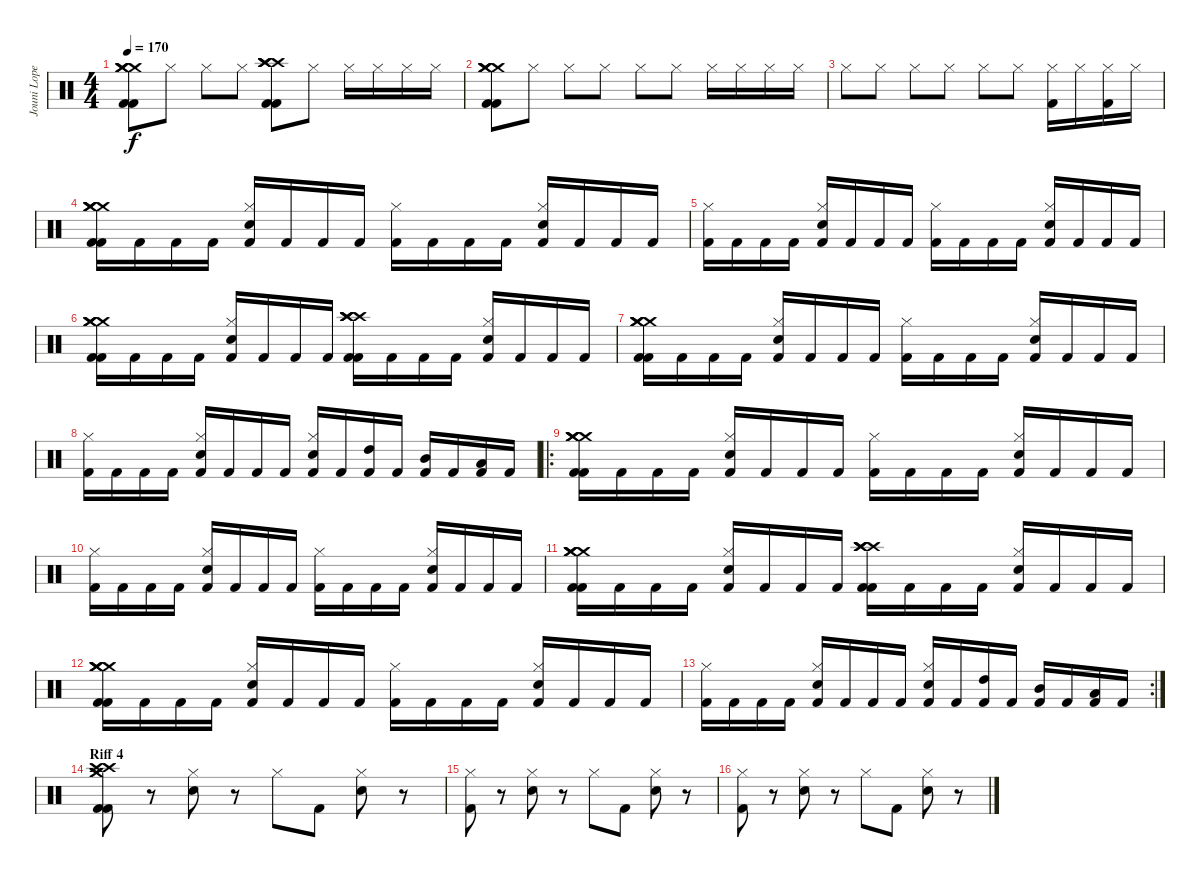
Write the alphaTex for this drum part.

\track ("Jouni Lopez (Bateria) 17 años" "Jouni Lope") {instrument percussion}
\staff {score}
\articulation defaults
\ts (4 4)
\tempo 170
\clef neutral
\ks c
("Kick (hit) 2" "Crash medium (hit)" "Crash medium (hit)" "Crash medium (hit)" "Crash medium (hit)" "Kick (hit) 2").8{dy f} "Hi-Hat (closed)".8 "Hi-Hat (closed)".8 "Hi-Hat (closed)".8 ("Kick (hit) 2" "Crash high (hit)" "Crash high (hit)" "Crash high (hit)" "Crash high (hit)" "Kick (hit) 2").8 "Hi-Hat (closed)".8 "Hi-Hat (closed)".16 "Hi-Hat (closed)".16 "Hi-Hat (closed)".16 "Hi-Hat (closed)".16 |
("Crash medium (hit)" "Crash medium (hit)" "Crash medium (hit)" "Crash medium (hit)" "Kick (hit) 2" "Kick (hit) 2").8 "Hi-Hat (closed)".8 "Hi-Hat (closed)".8 "Hi-Hat (closed)".8 "Hi-Hat (closed)".8 "Hi-Hat (closed)".8 "Hi-Hat (closed)".16 "Hi-Hat (closed)".16 "Hi-Hat (closed)".16 "Hi-Hat (closed)".16 |
"Hi-Hat (closed)".8 "Hi-Hat (closed)".8 "Hi-Hat (closed)".8 "Hi-Hat (closed)".8 "Hi-Hat (closed)".8 "Hi-Hat (closed)".8 ("Hi-Hat (closed)" "Kick (hit) 2").16 "Hi-Hat (closed)".16 ("Hi-Hat (closed)" "Kick (hit) 2").16 "Hi-Hat (closed)".16 |
("Kick (hit) 2" "Crash medium (hit)" "Crash medium (hit)" "Crash medium (hit)" "Crash medium (hit)" "Kick (hit) 2").16 "Kick (hit) 2".16 "Kick (hit) 2".16 "Kick (hit) 2".16 ("Kick (hit) 2" "Snare (hit) 2" "Hi-Hat (closed)").16 "Kick (hit) 2".16 "Kick (hit) 2".16 "Kick (hit) 2".16 ("Kick (hit) 2" "Hi-Hat (closed)").16 "Kick (hit) 2".16 "Kick (hit) 2".16 "Kick (hit) 2".16 ("Kick (hit) 2" "Snare (hit) 2" "Hi-Hat (closed)").16 "Kick (hit) 2".16 "Kick (hit) 2".16 "Kick (hit) 2".16 |
("Kick (hit) 2" "Hi-Hat (closed)").16 "Kick (hit) 2".16 "Kick (hit) 2".16 "Kick (hit) 2".16 ("Kick (hit) 2" "Snare (hit) 2" "Hi-Hat (closed)").16 "Kick (hit) 2".16 "Kick (hit) 2".16 "Kick (hit) 2".16 ("Kick (hit) 2" "Hi-Hat (closed)").16 "Kick (hit) 2".16 "Kick (hit) 2".16 "Kick (hit) 2".16 ("Kick (hit) 2" "Snare (hit) 2" "Hi-Hat (closed)").16 "Kick (hit) 2".16 "Kick (hit) 2".16 "Kick (hit) 2".16 |
("Kick (hit) 2" "Crash medium (hit)" "Crash medium (hit)" "Crash medium (hit)" "Crash medium (hit)" "Kick (hit) 2").16 "Kick (hit) 2".16 "Kick (hit) 2".16 "Kick (hit) 2".16 ("Kick (hit) 2" "Snare (hit) 2" "Hi-Hat (closed)").16 "Kick (hit) 2".16 "Kick (hit) 2".16 "Kick (hit) 2".16 ("Kick (hit) 2" "Crash high (hit)" "Crash high (hit)" "Crash high (hit)" "Crash high (hit)" "Kick (hit) 2").16 "Kick (hit) 2".16 "Kick (hit) 2".16 "Kick (hit) 2".16 ("Kick (hit) 2" "Snare (hit) 2" "Hi-Hat (closed)").16 "Kick (hit) 2".16 "Kick (hit) 2".16 "Kick (hit) 2".16 |
("Kick (hit) 2" "Crash medium (hit)" "Crash medium (hit)" "Crash medium (hit)" "Crash medium (hit)" "Kick (hit) 2").16 "Kick (hit) 2".16 "Kick (hit) 2".16 "Kick (hit) 2".16 ("Kick (hit) 2" "Snare (hit) 2" "Hi-Hat (closed)").16 "Kick (hit) 2".16 "Kick (hit) 2".16 "Kick (hit) 2".16 ("Kick (hit) 2" "Hi-Hat (closed)").16 "Kick (hit) 2".16 "Kick (hit) 2".16 "Kick (hit) 2".16 ("Kick (hit) 2" "Snare (hit) 2" "Hi-Hat (closed)").16 "Kick (hit) 2".16 "Kick (hit) 2".16 "Kick (hit) 2".16 |
("Kick (hit) 2" "Hi-Hat (closed)").16 "Kick (hit) 2".16 "Kick (hit) 2".16 "Kick (hit) 2".16 ("Kick (hit) 2" "Snare (hit) 2" "Hi-Hat (closed)").16 "Kick (hit) 2".16 "Kick (hit) 2".16 "Kick (hit) 2".16 ("Kick (hit) 2" "Snare (hit) 2" "Hi-Hat (closed)").16 "Kick (hit) 2".16 ("Kick (hit) 2" "High Tom (hit)").16 "Kick (hit) 2".16 ("Kick (hit) 2" "Mid Tom (hit)").16 "Kick (hit) 2".16 ("Kick (hit) 2" "Low Tom (hit)").16 "Kick (hit) 2".16 |
\ro
("Kick (hit) 2" "Crash medium (hit)" "Crash medium (hit)" "Crash medium (hit)" "Crash medium (hit)" "Kick (hit) 2").16 "Kick (hit) 2".16 "Kick (hit) 2".16 "Kick (hit) 2".16 ("Kick (hit) 2" "Snare (hit) 2" "Hi-Hat (closed)").16 "Kick (hit) 2".16 "Kick (hit) 2".16 "Kick (hit) 2".16 ("Kick (hit) 2" "Hi-Hat (closed)").16 "Kick (hit) 2".16 "Kick (hit) 2".16 "Kick (hit) 2".16 ("Kick (hit) 2" "Snare (hit) 2" "Hi-Hat (closed)").16 "Kick (hit) 2".16 "Kick (hit) 2".16 "Kick (hit) 2".16 |
("Kick (hit) 2" "Hi-Hat (closed)").16 "Kick (hit) 2".16 "Kick (hit) 2".16 "Kick (hit) 2".16 ("Kick (hit) 2" "Snare (hit) 2" "Hi-Hat (closed)").16 "Kick (hit) 2".16 "Kick (hit) 2".16 "Kick (hit) 2".16 ("Kick (hit) 2" "Hi-Hat (closed)").16 "Kick (hit) 2".16 "Kick (hit) 2".16 "Kick (hit) 2".16 ("Kick (hit) 2" "Snare (hit) 2" "Hi-Hat (closed)").16 "Kick (hit) 2".16 "Kick (hit) 2".16 "Kick (hit) 2".16 |
("Kick (hit) 2" "Crash medium (hit)" "Crash medium (hit)" "Crash medium (hit)" "Crash medium (hit)" "Kick (hit) 2").16 "Kick (hit) 2".16 "Kick (hit) 2".16 "Kick (hit) 2".16 ("Kick (hit) 2" "Snare (hit) 2" "Hi-Hat (closed)").16 "Kick (hit) 2".16 "Kick (hit) 2".16 "Kick (hit) 2".16 ("Kick (hit) 2" "Kick (hit) 2" "Crash high (hit)" "Crash high (hit)" "Crash high (hit)" "Crash high (hit)").16 "Kick (hit) 2".16 "Kick (hit) 2".16 "Kick (hit) 2".16 ("Kick (hit) 2" "Snare (hit) 2" "Hi-Hat (closed)").16 "Kick (hit) 2".16 "Kick (hit) 2".16 "Kick (hit) 2".16 |
("Kick (hit) 2" "Crash medium (hit)" "Crash medium (hit)" "Crash medium (hit)" "Crash medium (hit)" "Kick (hit) 2").16 "Kick (hit) 2".16 "Kick (hit) 2".16 "Kick (hit) 2".16 ("Kick (hit) 2" "Snare (hit) 2" "Hi-Hat (closed)").16 "Kick (hit) 2".16 "Kick (hit) 2".16 "Kick (hit) 2".16 ("Kick (hit) 2" "Hi-Hat (closed)").16 "Kick (hit) 2".16 "Kick (hit) 2".16 "Kick (hit) 2".16 ("Kick (hit) 2" "Snare (hit) 2" "Hi-Hat (closed)").16 "Kick (hit) 2".16 "Kick (hit) 2".16 "Kick (hit) 2".16 |
\rc 2
("Kick (hit) 2" "Hi-Hat (closed)").16 "Kick (hit) 2".16 "Kick (hit) 2".16 "Kick (hit) 2".16 ("Kick (hit) 2" "Snare (hit) 2" "Hi-Hat (closed)").16 "Kick (hit) 2".16 "Kick (hit) 2".16 "Kick (hit) 2".16 ("Kick (hit) 2" "Snare (hit) 2" "Hi-Hat (closed)").16 "Kick (hit) 2".16 ("Kick (hit) 2" "High Tom (hit)").16 "Kick (hit) 2".16 ("Kick (hit) 2" "Mid Tom (hit)").16 "Kick (hit) 2".16 ("Kick (hit) 2" "Low Tom (hit)").16 "Kick (hit) 2".16 |
\section ("" "Riff 4")
("Crash medium (hit)" "Kick (hit) 2" "Crash medium (hit)" "Crash high (hit)" "Crash high (hit)" "Kick (hit) 2").8 r.8 ("Hi-Hat (closed)" "Snare (hit) 2").8 r.8 "Hi-Hat (closed)".8 "Kick (hit) 2".8 ("Hi-Hat (closed)" "Snare (hit) 2").8 r.8 |
("Hi-Hat (closed)" "Kick (hit) 2").8 r.8 ("Hi-Hat (closed)" "Snare (hit) 2").8 r.8 "Hi-Hat (closed)".8 "Kick (hit) 2".8 ("Hi-Hat (closed)" "Snare (hit) 2").8 r.8 |
("Hi-Hat (closed)" "Kick (hit) 2").8 r.8 ("Hi-Hat (closed)" "Snare (hit) 2").8 r.8 "Hi-Hat (closed)".8 "Kick (hit) 2".8 ("Hi-Hat (closed)" "Snare (hit) 2").8 r.8
